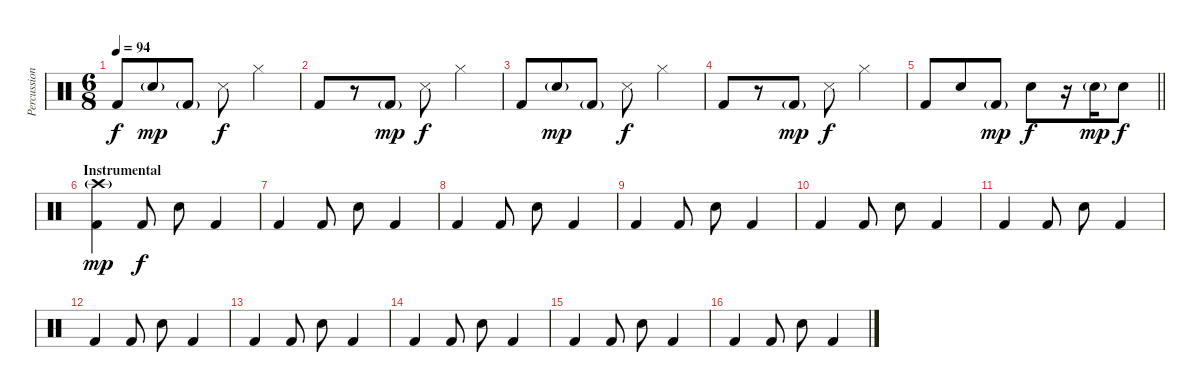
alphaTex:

\track ("Percussion" "Percussion") {instrument percussion}
\staff {score}
\articulation defaults
\ts (6 8)
\tempo 94
\clef neutral
\ks c "Kick (hit) 2".8{dy f} "Snare (hit) 2"{g}.8{dy mp} "Kick (hit) 2"{g}.8 "Snare (side stick) 3".8{dy f} "Hi-Hat (closed)".4
|
"Kick (hit) 2".8 r.8 "Kick (hit) 2"{g}.8{dy mp} "Snare (side stick) 3".8{dy f} "Hi-Hat (closed)".4 |
"Kick (hit) 2".8 "Snare (hit) 2"{g}.8{dy mp} "Kick (hit) 2"{g}.8 "Snare (side stick) 3".8{dy f} "Hi-Hat (closed)".4 |
"Kick (hit) 2".8 r.8 "Kick (hit) 2"{g}.8{dy mp} "Snare (side stick) 3".8{dy f} "Hi-Hat (closed)".4 |
\barLineRight lightlight "Kick (hit) 2".8 "Snare (hit) 2".8 "Kick (hit) 2"{g}.8{dy mp} "Snare (hit) 2".8{dy f}
r.16 "Snare (hit) 2"{g}.16{dy mp} "Snare (hit) 2".8{dy f} |
\section ("" "Instrumental")
("Crash high (hit)"{g} "Kick (hit) 2").4{dy mp} "Kick (hit) 2".8{dy f} "Snare (hit) 2".8 "Kick (hit) 2".4 |
"Kick (hit) 2".4 "Kick (hit) 2".8 "Snare (hit) 2".8 "Kick (hit) 2".4 |
"Kick (hit) 2".4 "Kick (hit) 2".8 "Snare (hit) 2".8 "Kick (hit) 2".4 |
"Kick (hit) 2".4 "Kick (hit) 2".8 "Snare (hit) 2".8 "Kick (hit) 2".4 |
"Kick (hit) 2".4 "Kick (hit) 2".8 "Snare (hit) 2".8 "Kick (hit) 2".4 |
"Kick (hit) 2".4 "Kick (hit) 2".8 "Snare (hit) 2".8 "Kick (hit) 2".4 |
"Kick (hit) 2".4 "Kick (hit) 2".8 "Snare (hit) 2".8 "Kick (hit) 2".4 |
"Kick (hit) 2".4 "Kick (hit) 2".8 "Snare (hit) 2".8 "Kick (hit) 2".4 |
"Kick (hit) 2".4 "Kick (hit) 2".8 "Snare (hit) 2".8 "Kick (hit) 2".4 |
"Kick (hit) 2".4 "Kick (hit) 2".8 "Snare (hit) 2".8 "Kick (hit) 2".4 |
"Kick (hit) 2".4 "Kick (hit) 2".8 "Snare (hit) 2".8 "Kick (hit) 2".4
